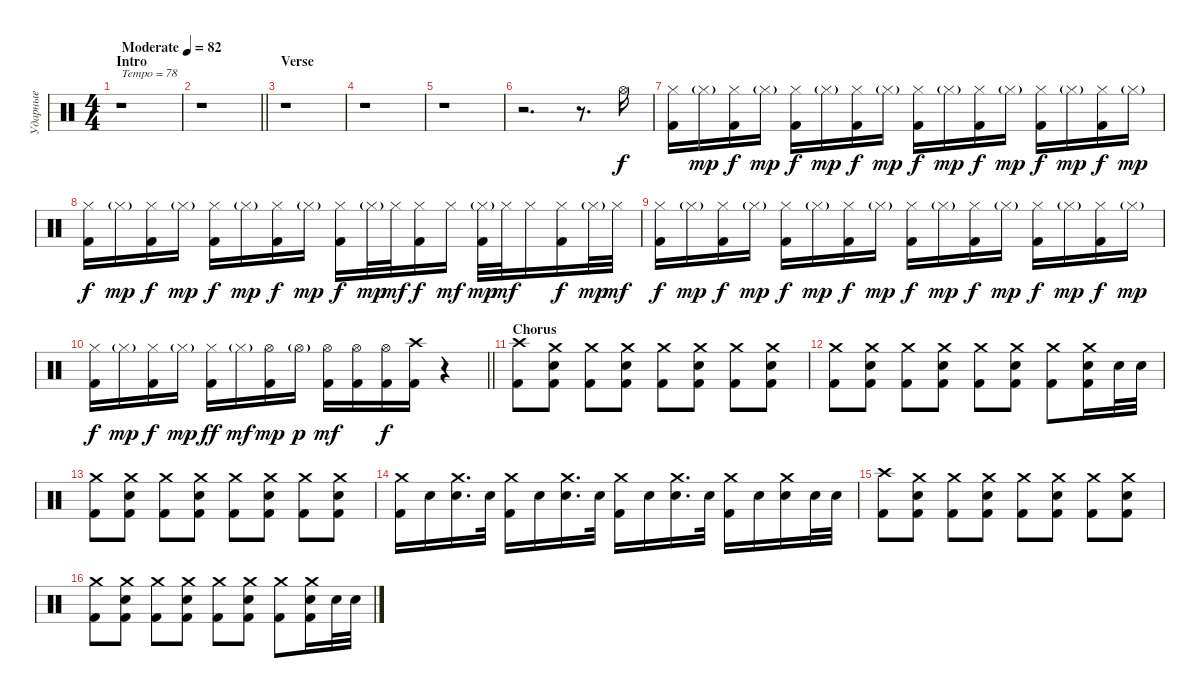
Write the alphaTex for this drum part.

\track ("Ударные" "Ударные") {instrument percussion}
\staff {score}
\articulation defaults
\ts (4 4)
\section ("" "Intro")
\tempo (82 "Moderate")
\tempo 78
\tempo (82 "Moderate")
\clef neutral
\ks c
r.1{txt "Tempo = 78" dy f} |
\barLineRight lightlight
r.1 |
\section ("" "Verse")
r.1 |
r.1 |
r.1 |
r.2{d} r.8{d} "Hi-Hat (open)".16 |
("Hi-Hat (closed)" "Kick (hit) 2").16 "Hi-Hat (closed)"{g}.16{dy mp} ("Hi-Hat (closed)" "Kick (hit) 2").16{dy f} "Hi-Hat (closed)"{g}.16{dy mp} ("Hi-Hat (closed)" "Kick (hit) 2").16{dy f} "Hi-Hat (closed)"{g}.16{dy mp} ("Hi-Hat (closed)" "Kick (hit) 2").16{dy f} "Hi-Hat (closed)"{g}.16{dy mp} ("Hi-Hat (closed)" "Kick (hit) 2").16{dy f} "Hi-Hat (closed)"{g}.16{dy mp} ("Hi-Hat (closed)" "Kick (hit) 2").16{dy f} "Hi-Hat (closed)"{g}.16{dy mp} ("Hi-Hat (closed)" "Kick (hit) 2").16{dy f} "Hi-Hat (closed)"{g}.16{dy mp} ("Hi-Hat (closed)" "Kick (hit) 2").16{dy f} "Hi-Hat (closed)"{g}.16{dy mp} |
("Hi-Hat (closed)" "Kick (hit) 2").16{dy f} "Hi-Hat (closed)"{g}.16{dy mp} ("Hi-Hat (closed)" "Kick (hit) 2").16{dy f} "Hi-Hat (closed)"{g}.16{dy mp} ("Hi-Hat (closed)" "Kick (hit) 2").16{dy f} "Hi-Hat (closed)"{g}.16{dy mp} ("Hi-Hat (closed)" "Kick (hit) 2").16{dy f} "Hi-Hat (closed)"{g}.16{dy mp} ("Hi-Hat (closed)" "Kick (hit) 2").16{dy f} "Hi-Hat (closed)"{g}.32{dy mp} "Hi-Hat (closed)".32{dy mf} ("Hi-Hat (closed)" "Kick (hit) 2").16{dy f} "Hi-Hat (closed)".16{dy mf} ("Hi-Hat (closed)"{g} "Kick (hit) 2").32{dy mp} "Hi-Hat (closed)".32{dy mf} "Hi-Hat (closed)".16 ("Hi-Hat (closed)" "Kick (hit) 2").16{dy f} "Hi-Hat (closed)"{g}.32{dy mp} "Hi-Hat (closed)".32{dy mf} |
("Hi-Hat (closed)" "Kick (hit) 2").16{dy f} "Hi-Hat (closed)"{g}.16{dy mp} ("Hi-Hat (closed)" "Kick (hit) 2").16{dy f} "Hi-Hat (closed)"{g}.16{dy mp} ("Hi-Hat (closed)" "Kick (hit) 2").16{dy f} "Hi-Hat (closed)"{g}.16{dy mp} ("Hi-Hat (closed)" "Kick (hit) 2").16{dy f} "Hi-Hat (closed)"{g}.16{dy mp} ("Hi-Hat (closed)" "Kick (hit) 2").16{dy f} "Hi-Hat (closed)"{g}.16{dy mp} ("Hi-Hat (closed)" "Kick (hit) 2").16{dy f} "Hi-Hat (closed)"{g}.16{dy mp} ("Hi-Hat (closed)" "Kick (hit) 2").16{dy f} "Hi-Hat (closed)"{g}.16{dy mp} ("Hi-Hat (closed)" "Kick (hit) 2").16{dy f} "Hi-Hat (closed)"{g}.16{dy mp} |
\barLineRight lightlight
("Hi-Hat (closed)" "Kick (hit) 2").16{dy f} "Hi-Hat (closed)"{g}.16{dy mp} ("Hi-Hat (closed)" "Kick (hit) 2").16{dy f} "Hi-Hat (closed)"{g}.16{dy mp} ("Hi-Hat (closed)" "Kick (hit) 2").16{dy ff} "Hi-Hat (closed)"{g}.16{dy mf} ("Hi-Hat (open)" "Kick (hit) 2").16{dy mp} "Hi-Hat (open)"{g}.16{dy p} ("Hi-Hat (open)" "Kick (hit) 2").16{dy mf} ("Hi-Hat (open)" "Kick (hit) 2").16 ("Hi-Hat (open)" "Kick (hit) 2").16{dy f} ("Crash high (hit)" "Kick (hit) 2").16 r.4 |
\section ("" "Сhorus")
("Crash high (hit)" "Kick (hit) 2").8 ("Crash medium (hit)" "Electric Snare (hit)" "Kick (hit) 2").8 ("Crash medium (hit)" "Kick (hit) 2").8 ("Crash medium (hit)" "Electric Snare (hit)" "Kick (hit) 2").8 ("Crash medium (hit)" "Kick (hit) 2").8 ("Crash medium (hit)" "Electric Snare (hit)" "Kick (hit) 2").8 ("Crash medium (hit)" "Kick (hit) 2").8 ("Crash medium (hit)" "Electric Snare (hit)" "Kick (hit) 2").8 |
("Crash medium (hit)" "Kick (hit) 2").8 ("Crash medium (hit)" "Electric Snare (hit)" "Kick (hit) 2").8 ("Crash medium (hit)" "Kick (hit) 2").8 ("Crash medium (hit)" "Electric Snare (hit)" "Kick (hit) 2").8 ("Crash medium (hit)" "Kick (hit) 2").8 ("Crash medium (hit)" "Electric Snare (hit)" "Kick (hit) 2").8 ("Crash medium (hit)" "Kick (hit) 2").8 ("Crash medium (hit)" "Electric Snare (hit)" "Kick (hit) 2").16 "Electric Snare (hit)".32 "Electric Snare (hit)".32 |
("Crash medium (hit)" "Kick (hit) 2").8 ("Crash medium (hit)" "Electric Snare (hit)" "Kick (hit) 2").8 ("Crash medium (hit)" "Kick (hit) 2").8 ("Crash medium (hit)" "Electric Snare (hit)" "Kick (hit) 2").8 ("Crash medium (hit)" "Kick (hit) 2").8 ("Crash medium (hit)" "Electric Snare (hit)" "Kick (hit) 2").8 ("Crash medium (hit)" "Kick (hit) 2").8 ("Crash medium (hit)" "Electric Snare (hit)" "Kick (hit) 2").8 |
("Crash medium (hit)" "Kick (hit) 2").16 "Electric Snare (hit)".16 ("Crash medium (hit)" "Electric Snare (hit)").16{d} "Electric Snare (hit)".32 ("Crash medium (hit)" "Kick (hit) 2").16 "Electric Snare (hit)".16 ("Crash medium (hit)" "Electric Snare (hit)").16{d} "Electric Snare (hit)".32 ("Crash medium (hit)" "Kick (hit) 2").16 "Electric Snare (hit)".16 ("Crash medium (hit)" "Electric Snare (hit)").16{d} "Electric Snare (hit)".32 ("Crash medium (hit)" "Kick (hit) 2").16 "Electric Snare (hit)".16 ("Crash medium (hit)" "Electric Snare (hit)").16 "Electric Snare (hit)".32 "Electric Snare (hit)".32 |
("Crash high (hit)" "Kick (hit) 2").8 ("Crash medium (hit)" "Electric Snare (hit)" "Kick (hit) 2").8 ("Crash medium (hit)" "Kick (hit) 2").8 ("Crash medium (hit)" "Electric Snare (hit)" "Kick (hit) 2").8 ("Crash medium (hit)" "Kick (hit) 2").8 ("Crash medium (hit)" "Electric Snare (hit)" "Kick (hit) 2").8 ("Crash medium (hit)" "Kick (hit) 2").8 ("Crash medium (hit)" "Electric Snare (hit)" "Kick (hit) 2").8 |
("Crash medium (hit)" "Kick (hit) 2").8 ("Crash medium (hit)" "Electric Snare (hit)" "Kick (hit) 2").8 ("Crash medium (hit)" "Kick (hit) 2").8 ("Crash medium (hit)" "Electric Snare (hit)" "Kick (hit) 2").8 ("Crash medium (hit)" "Kick (hit) 2").8 ("Crash medium (hit)" "Electric Snare (hit)" "Kick (hit) 2").8 ("Crash medium (hit)" "Kick (hit) 2").8 ("Crash medium (hit)" "Electric Snare (hit)" "Kick (hit) 2").16 "Electric Snare (hit)".32 "Electric Snare (hit)".32
